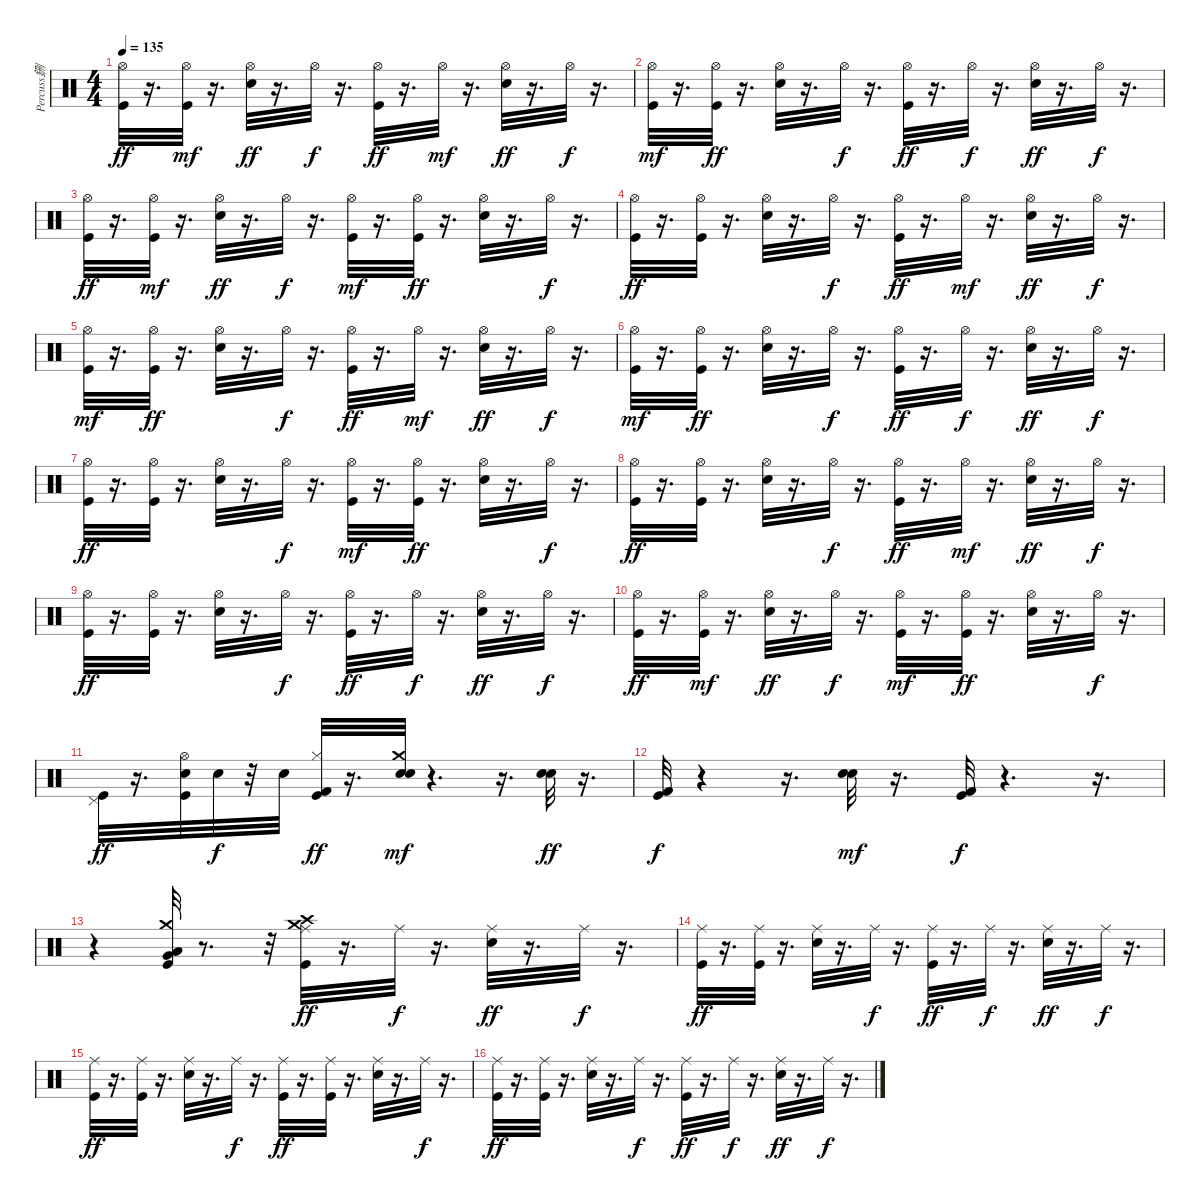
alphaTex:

\track ("Percuss鉶" "Percuss鉶") {instrument percussion}
\staff {score}
\articulation defaults
\ts (4 4)
\tempo 135
\clef neutral
\ks c
("Hi-Hat (open)" "Kick (hit)").32{dy ff} r.16{d} ("Kick (hit)" "Hi-Hat (open)").32{dy mf} r.16{d} ("Hi-Hat (open)" "Electric Snare (hit)").32{dy ff} r.16{d} "Hi-Hat (open)".32{dy f} r.16{d} ("Kick (hit)" "Hi-Hat (open)").32{dy ff} r.16{d} "Hi-Hat (open)".32{dy mf} r.16{d} ("Electric Snare (hit)" "Hi-Hat (open)").32{dy ff} r.16{d} "Hi-Hat (open)".32{dy f} r.16{d} |
("Kick (hit)" "Hi-Hat (open)").32{dy mf} r.16{d} ("Kick (hit)" "Hi-Hat (open)").32{dy ff} r.16{d} ("Hi-Hat (open)" "Electric Snare (hit)").32 r.16{d} "Hi-Hat (open)".32{dy f} r.16{d} ("Kick (hit)" "Hi-Hat (open)").32{dy ff} r.16{d} "Hi-Hat (open)".32{dy f} r.16{d} ("Hi-Hat (open)" "Electric Snare (hit)").32{dy ff} r.16{d} "Hi-Hat (open)".32{dy f} r.16{d} |
("Kick (hit)" "Hi-Hat (open)").32{dy ff} r.16{d} ("Kick (hit)" "Hi-Hat (open)").32{dy mf} r.16{d} ("Hi-Hat (open)" "Electric Snare (hit)").32{dy ff} r.16{d} "Hi-Hat (open)".32{dy f} r.16{d} ("Kick (hit)" "Hi-Hat (open)").32{dy mf} r.16{d} ("Hi-Hat (open)" "Kick (hit)").32{dy ff} r.16{d} ("Electric Snare (hit)" "Hi-Hat (open)").32 r.16{d} "Hi-Hat (open)".32{dy f} r.16{d} |
("Hi-Hat (open)" "Kick (hit)").32{dy ff} r.16{d} ("Hi-Hat (open)" "Kick (hit)").32 r.16{d} ("Hi-Hat (open)" "Electric Snare (hit)").32 r.16{d} "Hi-Hat (open)".32{dy f} r.16{d} ("Hi-Hat (open)" "Kick (hit)").32{dy ff} r.16{d} "Hi-Hat (open)".32{dy mf} r.16{d} ("Electric Snare (hit)" "Hi-Hat (open)").32{dy ff} r.16{d} "Hi-Hat (open)".32{dy f} r.16{d} |
("Kick (hit)" "Hi-Hat (open)").32{dy mf} r.16{d} ("Hi-Hat (open)" "Kick (hit)").32{dy ff} r.16{d} ("Electric Snare (hit)" "Hi-Hat (open)").32 r.16{d} "Hi-Hat (open)".32{dy f} r.16{d} ("Kick (hit)" "Hi-Hat (open)").32{dy ff} r.16{d} "Hi-Hat (open)".32{dy mf} r.16{d} ("Electric Snare (hit)" "Hi-Hat (open)").32{dy ff} r.16{d} "Hi-Hat (open)".32{dy f} r.16{d} |
("Kick (hit)" "Hi-Hat (open)").32{dy mf} r.16{d} ("Hi-Hat (open)" "Kick (hit)").32{dy ff} r.16{d} ("Electric Snare (hit)" "Hi-Hat (open)").32 r.16{d} "Hi-Hat (open)".32{dy f} r.16{d} ("Kick (hit)" "Hi-Hat (open)").32{dy ff} r.16{d} "Hi-Hat (open)".32{dy f} r.16{d} ("Electric Snare (hit)" "Hi-Hat (open)").32{dy ff} r.16{d} "Hi-Hat (open)".32{dy f} r.16{d} |
("Hi-Hat (open)" "Kick (hit)").32{dy ff} r.16{d} ("Hi-Hat (open)" "Kick (hit)").32 r.16{d} ("Electric Snare (hit)" "Hi-Hat (open)").32 r.16{d} "Hi-Hat (open)".32{dy f} r.16{d} ("Kick (hit)" "Hi-Hat (open)").32{dy mf} r.16{d} ("Hi-Hat (open)" "Kick (hit)").32{dy ff} r.16{d} ("Hi-Hat (open)" "Electric Snare (hit)").32 r.16{d} "Hi-Hat (open)".32{dy f} r.16{d} |
("Kick (hit)" "Hi-Hat (open)").32{dy ff} r.16{d} ("Hi-Hat (open)" "Kick (hit)").32 r.16{d} ("Electric Snare (hit)" "Hi-Hat (open)").32 r.16{d} "Hi-Hat (open)".32{dy f} r.16{d} ("Kick (hit)" "Hi-Hat (open)").32{dy ff} r.16{d} "Hi-Hat (open)".32{dy mf} r.16{d} ("Hi-Hat (open)" "Electric Snare (hit)").32{dy ff} r.16{d} "Hi-Hat (open)".32{dy f} r.16{d} |
("Hi-Hat (open)" "Kick (hit)").32{dy ff} r.16{d} ("Hi-Hat (open)" "Kick (hit)").32 r.16{d} ("Electric Snare (hit)" "Hi-Hat (open)").32 r.16{d} "Hi-Hat (open)".32{dy f} r.16{d} ("Kick (hit)" "Hi-Hat (open)").32{dy ff} r.16{d} "Hi-Hat (open)".32{dy f} r.16{d} ("Hi-Hat (open)" "Electric Snare (hit)").32{dy ff} r.16{d} "Hi-Hat (open)".32{dy f} r.16{d} |
("Kick (hit)" "Hi-Hat (open)").32{dy ff} r.16{d} ("Kick (hit)" "Hi-Hat (open)").32{dy mf} r.16{d} ("Hi-Hat (open)" "Electric Snare (hit)").32{dy ff} r.16{d} "Hi-Hat (open)".32{dy f} r.16{d} ("Kick (hit)" "Hi-Hat (open)").32{dy mf} r.16{d} ("Hi-Hat (open)" "Kick (hit)").32{dy ff} r.16{d} ("Electric Snare (hit)" "Hi-Hat (open)").32 r.16{d} "Hi-Hat (open)".32{dy f} r.16{d} |
("Pedal Hi-Hat (hit)" "Kick (hit)").32{dy ff} r.16{d} ("Electric Snare (hit)" "Hi-Hat (open)" "Kick (hit)").32 "Electric Snare (hit)".32{dy f} r.32 "Electric Snare (hit)".32 ("Hi-Hat (closed)" "Kick (hit) 2" "Kick (hit)").32{dy ff} r.16{d} ("Electric Snare (hit)" "Crash medium (hit)" "Snare (hit) 2").32{dy mf} r.4{d} r.16{d} ("Electric Snare (hit)" "Snare (hit) 2").32{dy ff} r.16{d} |
("Kick (hit) 2" "Kick (hit)").32{dy f} r.4 r.16{d} ("Electric Snare (hit)" "Snare (hit) 2").32{dy mf} r.16{d} ("Kick (hit) 2" "Kick (hit)").32{dy f} r.4{d} r.16{d} |
r.4 ("Low Tom (hit)" "Kick (hit)" "Crash medium (hit)" "Very Low Tom (hit)").32 r.8{d} r.32 ("Crash high (hit)" "Kick (hit)" "Crash medium (hit)" "Ride (middle)").32{dy ff} r.16{d} "Ride (middle)".32{dy f} r.16{d} ("Ride (middle)" "Electric Snare (hit)").32{dy ff} r.16{d} "Ride (middle)".32{dy f} r.16{d} |
("Kick (hit)" "Ride (middle)").32{dy ff} r.16{d} ("Ride (middle)" "Kick (hit)").32 r.16{d} ("Electric Snare (hit)" "Ride (middle)").32 r.16{d} "Ride (middle)".32{dy f} r.16{d} ("Ride (middle)" "Kick (hit)").32{dy ff} r.16{d} "Ride (middle)".32{dy f} r.16{d} ("Ride (middle)" "Electric Snare (hit)").32{dy ff} r.16{d} "Ride (middle)".32{dy f} r.16{d} |
("Kick (hit)" "Ride (middle)").32{dy ff} r.16{d} ("Kick (hit)" "Ride (middle)").32 r.16{d} ("Ride (middle)" "Electric Snare (hit)").32 r.16{d} "Ride (middle)".32{dy f} r.16{d} ("Ride (middle)" "Kick (hit)").32{dy ff} r.16{d} ("Ride (middle)" "Kick (hit)").32 r.16{d} ("Electric Snare (hit)" "Ride (middle)").32 r.16{d} "Ride (middle)".32{dy f} r.16{d} |
("Kick (hit)" "Ride (middle)").32{dy ff} r.16{d} ("Kick (hit)" "Ride (middle)").32 r.16{d} ("Electric Snare (hit)" "Ride (middle)").32 r.16{d} "Ride (middle)".32{dy f} r.16{d} ("Kick (hit)" "Ride (middle)").32{dy ff} r.16{d} "Ride (middle)".32{dy f} r.16{d} ("Electric Snare (hit)" "Ride (middle)").32{dy ff} r.16{d} "Ride (middle)".32{dy f} r.16{d}
